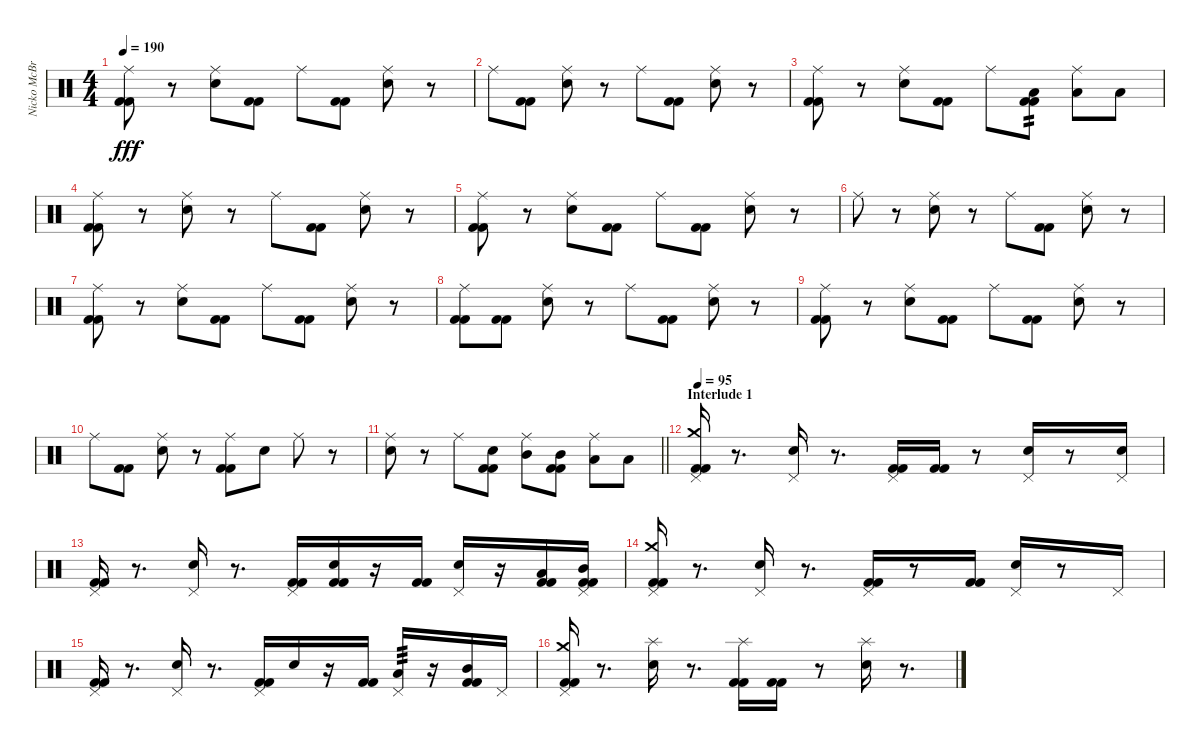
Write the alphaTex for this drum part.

\track ("Nicko McBrain" "Nicko McBr") {instrument percussion}
\staff {score}
\articulation defaults
\ts (4 4)
\tempo 190
\clef neutral
\ks c
("Ride (middle)" "Kick (hit) 2" "Kick (hit) 2").8{dy fff} r.8 ("Snare (hit) 2" "Ride (middle)").8 ("Kick (hit) 2" "Kick (hit) 2").8 "Ride (middle)".8 ("Kick (hit) 2" "Kick (hit) 2").8 ("Snare (hit) 2" "Ride (middle)").8 r.8 |
"Ride (middle)".8 ("Kick (hit) 2" "Kick (hit) 2").8 ("Snare (hit) 2" "Ride (middle)").8 r.8 "Ride (middle)".8 ("Kick (hit) 2" "Kick (hit) 2").8 ("Snare (hit) 2" "Ride (middle)").8 r.8 |
("Ride (middle)" "Kick (hit) 2" "Kick (hit) 2").8 r.8 ("Snare (hit) 2" "Ride (middle)").8 ("Kick (hit) 2" "Kick (hit) 2").8 "Ride (middle)".8 ("Low Tom (hit)" "Kick (hit) 2" "Kick (hit) 2").8{tp 2} ("Low Tom (hit)" "Ride (middle)").8 "Low Tom (hit)".8 |
("Ride (middle)" "Kick (hit) 2" "Kick (hit) 2").8 r.8 ("Snare (hit) 2" "Ride (middle)").8 r.8 "Ride (middle)".8 ("Kick (hit) 2" "Kick (hit) 2").8 ("Snare (hit) 2" "Ride (middle)").8 r.8 |
("Ride (middle)" "Kick (hit) 2" "Kick (hit) 2").8 r.8 ("Snare (hit) 2" "Ride (middle)").8 ("Kick (hit) 2" "Kick (hit) 2").8 "Ride (middle)".8 ("Kick (hit) 2" "Kick (hit) 2").8 ("Snare (hit) 2" "Ride (middle)").8 r.8 |
"Ride (middle)".8 r.8 ("Snare (hit) 2" "Ride (middle)").8 r.8 "Ride (middle)".8 ("Kick (hit) 2" "Kick (hit) 2").8 ("Snare (hit) 2" "Ride (middle)").8 r.8 |
("Ride (middle)" "Kick (hit) 2" "Kick (hit) 2").8 r.8 ("Snare (hit) 2" "Ride (middle)").8 ("Kick (hit) 2" "Kick (hit) 2").8 "Ride (middle)".8 ("Kick (hit) 2" "Kick (hit) 2").8 ("Snare (hit) 2" "Ride (middle)").8 r.8 |
("Ride (middle)" "Kick (hit) 2" "Kick (hit) 2").8 ("Kick (hit) 2" "Kick (hit) 2").8 ("Snare (hit) 2" "Ride (middle)").8 r.8 "Ride (middle)".8 ("Kick (hit) 2" "Kick (hit) 2").8 ("Snare (hit) 2" "Ride (middle)").8 r.8 |
("Ride (middle)" "Kick (hit) 2" "Kick (hit) 2").8 r.8 ("Snare (hit) 2" "Ride (middle)").8 ("Kick (hit) 2" "Kick (hit) 2").8 "Ride (middle)".8 ("Kick (hit) 2" "Kick (hit) 2").8 ("Snare (hit) 2" "Ride (middle)").8 r.8 |
"Ride (middle)".8 ("Kick (hit) 2" "Kick (hit) 2").8 ("Snare (hit) 2" "Ride (middle)").8 r.8 ("Ride (middle)" "Kick (hit) 2" "Kick (hit) 2").8 "Snare (hit) 2".8 "Ride (middle)".8 r.8 |
\barLineRight lightlight
("Snare (hit) 2" "Ride (middle)").8 r.8 "Ride (middle)".8 ("Snare (hit) 2" "Kick (hit) 2" "Kick (hit) 2").8 ("Mid Tom (hit)" "Ride (middle)").8 ("Mid Tom (hit)" "Kick (hit) 2" "Kick (hit) 2").8 ("Low Tom (hit)" "Ride (middle)").8 "Low Tom (hit)".8 |
\section ("" "Interlude 1")
\tempo 95
("Crash medium (hit)" "Pedal Hi-Hat (hit)" "Kick (hit) 2" "Kick (hit) 2").16 r.8{d} ("Snare (hit) 2" "Pedal Hi-Hat (hit)").16 r.8{d} ("Pedal Hi-Hat (hit)" "Kick (hit) 2" "Kick (hit) 2").16 ("Kick (hit) 2" "Kick (hit) 2").16 r.8 ("Snare (hit) 2" "Pedal Hi-Hat (hit)").16 r.8 ("Snare (hit) 2" "Pedal Hi-Hat (hit)").16 |
("Pedal Hi-Hat (hit)" "Kick (hit) 2" "Kick (hit) 2").16 r.8{d} ("Snare (hit) 2" "Pedal Hi-Hat (hit)").16 r.8{d} ("Pedal Hi-Hat (hit)" "Kick (hit) 2" "Kick (hit) 2").16 ("Snare (hit) 2" "Kick (hit) 2" "Kick (hit) 2").16 r.16 ("Kick (hit) 2" "Kick (hit) 2").16 ("Snare (hit) 2" "Pedal Hi-Hat (hit)").16 r.16 ("Low Tom (hit)" "Kick (hit) 2" "Kick (hit) 2").16 ("Mid Tom (hit)" "Pedal Hi-Hat (hit)" "Kick (hit) 2" "Kick (hit) 2").16 |
("Crash medium (hit)" "Pedal Hi-Hat (hit)" "Kick (hit) 2" "Kick (hit) 2").16 r.8{d} ("Snare (hit) 2" "Pedal Hi-Hat (hit)").16 r.8{d} ("Pedal Hi-Hat (hit)" "Kick (hit) 2" "Kick (hit) 2").16 r.8 ("Kick (hit) 2" "Kick (hit) 2").16 ("Snare (hit) 2" "Pedal Hi-Hat (hit)").16 r.8 "Pedal Hi-Hat (hit)".16 |
("Pedal Hi-Hat (hit)" "Kick (hit) 2" "Kick (hit) 2").16 r.8{d} ("Snare (hit) 2" "Pedal Hi-Hat (hit)").16 r.8{d} ("Pedal Hi-Hat (hit)" "Kick (hit) 2" "Kick (hit) 2").16 "Snare (hit) 2".16 r.16 ("Kick (hit) 2" "Kick (hit) 2").16 ("Low Tom (hit)" "Pedal Hi-Hat (hit)").16{tp 3} r.16 ("Mid Tom (hit)" "Kick (hit) 2" "Kick (hit) 2").16 "Pedal Hi-Hat (hit)".16 |
("Crash medium (hit)" "Pedal Hi-Hat (hit)" "Kick (hit) 2" "Kick (hit) 2").16 r.8{d} ("Snare (hit) 2" "Splash (hit)").16 r.8{d} ("Splash (hit)" "Kick (hit) 2" "Kick (hit) 2").16 ("Kick (hit) 2" "Kick (hit) 2").16 r.8 ("Snare (hit) 2" "Splash (hit)").16 r.8{d}
